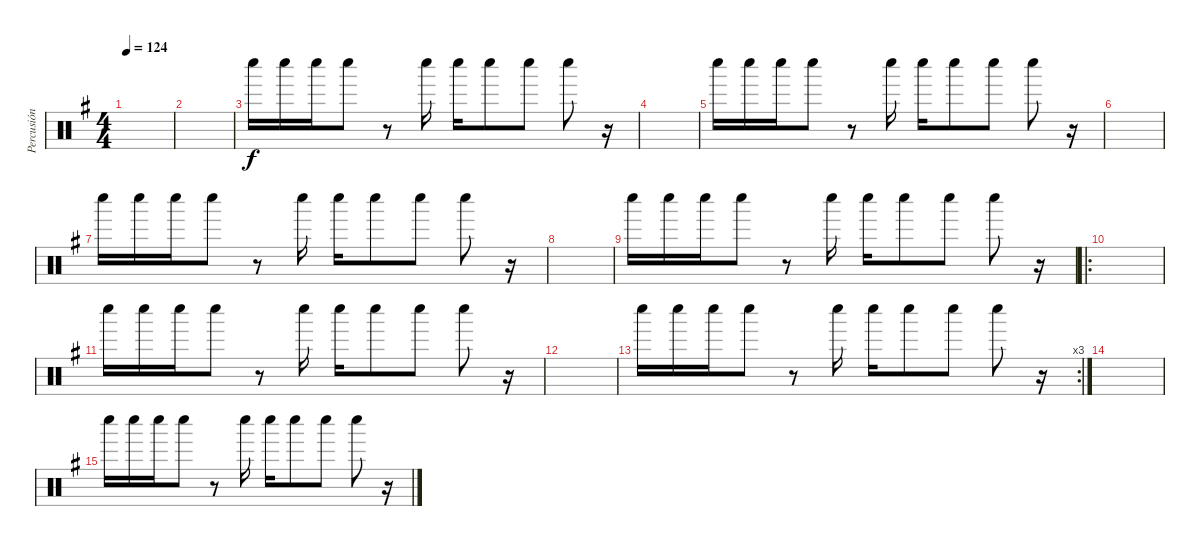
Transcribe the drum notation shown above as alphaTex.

\track ("Percusión" "Percusión") {instrument percussion}
\staff {score}
\articulation defaults
\ts (4 4)
\tempo 124
\clef neutral
\ks g
|
|
"Whistle low (hit)".16 "Whistle low (hit)".16 "Whistle low (hit)".16 "Whistle low (hit)".8 r.8 "Whistle low (hit)".16 "Whistle low (hit)".16 "Whistle low (hit)".8 "Whistle low (hit)".8 "Whistle low (hit)".8 r.16 |
|
"Whistle low (hit)".16 "Whistle low (hit)".16 "Whistle low (hit)".16 "Whistle low (hit)".8 r.8 "Whistle low (hit)".16 "Whistle low (hit)".16 "Whistle low (hit)".8 "Whistle low (hit)".8 "Whistle low (hit)".8 r.16 |
|
"Whistle low (hit)".16 "Whistle low (hit)".16 "Whistle low (hit)".16 "Whistle low (hit)".8 r.8 "Whistle low (hit)".16 "Whistle low (hit)".16 "Whistle low (hit)".8 "Whistle low (hit)".8 "Whistle low (hit)".8 r.16 |
|
"Whistle low (hit)".16 "Whistle low (hit)".16 "Whistle low (hit)".16 "Whistle low (hit)".8 r.8 "Whistle low (hit)".16 "Whistle low (hit)".16 "Whistle low (hit)".8 "Whistle low (hit)".8 "Whistle low (hit)".8 r.16 |
\ro
|
"Whistle low (hit)".16 "Whistle low (hit)".16 "Whistle low (hit)".16 "Whistle low (hit)".8 r.8 "Whistle low (hit)".16 "Whistle low (hit)".16 "Whistle low (hit)".8 "Whistle low (hit)".8 "Whistle low (hit)".8 r.16 |
|
\rc 3 "Whistle low (hit)".16 "Whistle low (hit)".16 "Whistle low (hit)".16 "Whistle low (hit)".8
r.8 "Whistle low (hit)".16 "Whistle low (hit)".16 "Whistle low (hit)".8 "Whistle low (hit)".8 "Whistle low (hit)".8 r.16 |
|
"Whistle low (hit)".16 "Whistle low (hit)".16 "Whistle low (hit)".16 "Whistle low (hit)".8 r.8 "Whistle low (hit)".16 "Whistle low (hit)".16 "Whistle low (hit)".8 "Whistle low (hit)".8 "Whistle low (hit)".8 r.16
